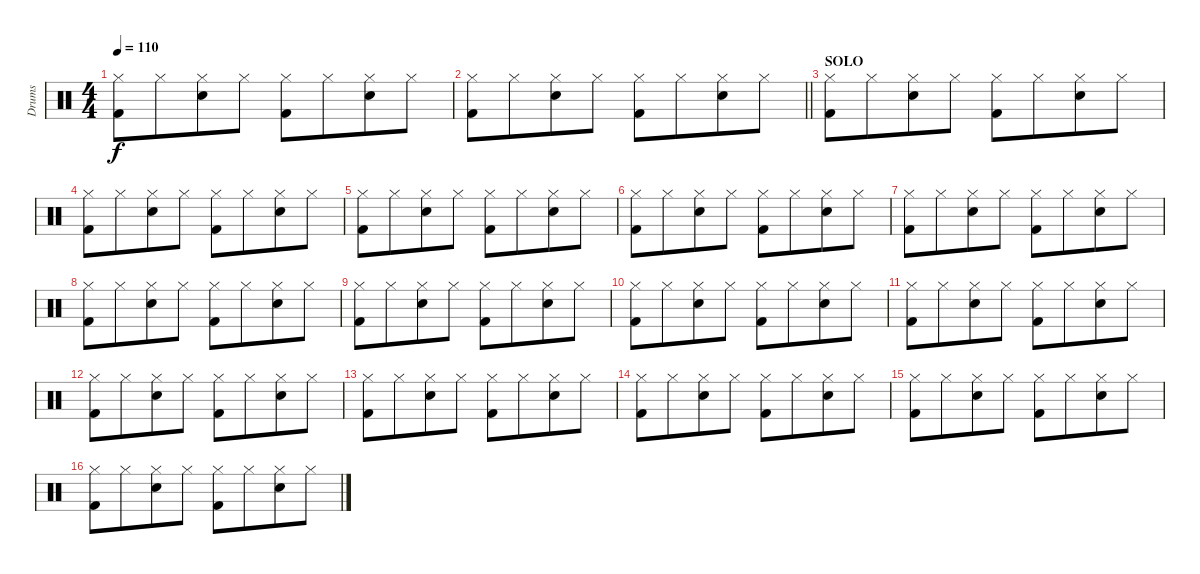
\track ("Drums" "Drums") {instrument percussion}
\staff {score}
\articulation defaults
\ts (4 4)
\tempo 110
\clef neutral
\ks c
("Hi-Hat (closed)" "Kick (hit) 2").8{dy f} "Hi-Hat (closed)".8{beam merge} ("Hi-Hat (closed)" "Electric Snare (hit)").8 "Hi-Hat (closed)".8 ("Hi-Hat (closed)" "Kick (hit) 2").8 "Hi-Hat (closed)".8{beam merge} ("Hi-Hat (closed)" "Electric Snare (hit)").8 "Hi-Hat (closed)".8 |
\barLineRight lightlight
("Hi-Hat (closed)" "Kick (hit) 2").8 "Hi-Hat (closed)".8{beam merge} ("Hi-Hat (closed)" "Electric Snare (hit)").8 "Hi-Hat (closed)".8 ("Hi-Hat (closed)" "Kick (hit) 2").8 "Hi-Hat (closed)".8{beam merge} ("Hi-Hat (closed)" "Electric Snare (hit)").8 "Hi-Hat (closed)".8 |
\section ("" "SOLO")
("Hi-Hat (closed)" "Kick (hit) 2").8 "Hi-Hat (closed)".8{beam merge} ("Hi-Hat (closed)" "Electric Snare (hit)").8 "Hi-Hat (closed)".8 ("Hi-Hat (closed)" "Kick (hit) 2").8 "Hi-Hat (closed)".8{beam merge} ("Hi-Hat (closed)" "Electric Snare (hit)").8 "Hi-Hat (closed)".8 |
("Hi-Hat (closed)" "Kick (hit) 2").8 "Hi-Hat (closed)".8{beam merge} ("Hi-Hat (closed)" "Electric Snare (hit)").8 "Hi-Hat (closed)".8 ("Hi-Hat (closed)" "Kick (hit) 2").8 "Hi-Hat (closed)".8{beam merge} ("Hi-Hat (closed)" "Electric Snare (hit)").8 "Hi-Hat (closed)".8 |
("Hi-Hat (closed)" "Kick (hit) 2").8 "Hi-Hat (closed)".8{beam merge} ("Hi-Hat (closed)" "Electric Snare (hit)").8 "Hi-Hat (closed)".8 ("Hi-Hat (closed)" "Kick (hit) 2").8 "Hi-Hat (closed)".8{beam merge} ("Hi-Hat (closed)" "Electric Snare (hit)").8 "Hi-Hat (closed)".8 |
("Hi-Hat (closed)" "Kick (hit) 2").8 "Hi-Hat (closed)".8{beam merge} ("Hi-Hat (closed)" "Electric Snare (hit)").8 "Hi-Hat (closed)".8 ("Hi-Hat (closed)" "Kick (hit) 2").8 "Hi-Hat (closed)".8{beam merge} ("Hi-Hat (closed)" "Electric Snare (hit)").8 "Hi-Hat (closed)".8 |
("Hi-Hat (closed)" "Kick (hit) 2").8 "Hi-Hat (closed)".8{beam merge} ("Hi-Hat (closed)" "Electric Snare (hit)").8 "Hi-Hat (closed)".8 ("Hi-Hat (closed)" "Kick (hit) 2").8 "Hi-Hat (closed)".8{beam merge} ("Hi-Hat (closed)" "Electric Snare (hit)").8 "Hi-Hat (closed)".8 |
("Hi-Hat (closed)" "Kick (hit) 2").8 "Hi-Hat (closed)".8{beam merge} ("Hi-Hat (closed)" "Electric Snare (hit)").8 "Hi-Hat (closed)".8 ("Hi-Hat (closed)" "Kick (hit) 2").8 "Hi-Hat (closed)".8{beam merge} ("Hi-Hat (closed)" "Electric Snare (hit)").8 "Hi-Hat (closed)".8 |
("Hi-Hat (closed)" "Kick (hit) 2").8 "Hi-Hat (closed)".8{beam merge} ("Hi-Hat (closed)" "Electric Snare (hit)").8 "Hi-Hat (closed)".8 ("Hi-Hat (closed)" "Kick (hit) 2").8 "Hi-Hat (closed)".8{beam merge} ("Hi-Hat (closed)" "Electric Snare (hit)").8 "Hi-Hat (closed)".8 |
("Hi-Hat (closed)" "Kick (hit) 2").8 "Hi-Hat (closed)".8{beam merge} ("Hi-Hat (closed)" "Electric Snare (hit)").8 "Hi-Hat (closed)".8 ("Hi-Hat (closed)" "Kick (hit) 2").8 "Hi-Hat (closed)".8{beam merge} ("Hi-Hat (closed)" "Electric Snare (hit)").8 "Hi-Hat (closed)".8 |
("Hi-Hat (closed)" "Kick (hit) 2").8 "Hi-Hat (closed)".8{beam merge} ("Hi-Hat (closed)" "Electric Snare (hit)").8 "Hi-Hat (closed)".8 ("Hi-Hat (closed)" "Kick (hit) 2").8 "Hi-Hat (closed)".8{beam merge} ("Hi-Hat (closed)" "Electric Snare (hit)").8 "Hi-Hat (closed)".8 |
("Hi-Hat (closed)" "Kick (hit) 2").8 "Hi-Hat (closed)".8{beam merge} ("Hi-Hat (closed)" "Electric Snare (hit)").8 "Hi-Hat (closed)".8 ("Hi-Hat (closed)" "Kick (hit) 2").8 "Hi-Hat (closed)".8{beam merge} ("Hi-Hat (closed)" "Electric Snare (hit)").8 "Hi-Hat (closed)".8 |
("Hi-Hat (closed)" "Kick (hit) 2").8 "Hi-Hat (closed)".8{beam merge} ("Hi-Hat (closed)" "Electric Snare (hit)").8 "Hi-Hat (closed)".8 ("Hi-Hat (closed)" "Kick (hit) 2").8 "Hi-Hat (closed)".8{beam merge} ("Hi-Hat (closed)" "Electric Snare (hit)").8 "Hi-Hat (closed)".8 |
("Hi-Hat (closed)" "Kick (hit) 2").8 "Hi-Hat (closed)".8{beam merge} ("Hi-Hat (closed)" "Electric Snare (hit)").8 "Hi-Hat (closed)".8 ("Hi-Hat (closed)" "Kick (hit) 2").8 "Hi-Hat (closed)".8{beam merge} ("Hi-Hat (closed)" "Electric Snare (hit)").8 "Hi-Hat (closed)".8 |
("Hi-Hat (closed)" "Kick (hit) 2").8 "Hi-Hat (closed)".8{beam merge} ("Hi-Hat (closed)" "Electric Snare (hit)").8 "Hi-Hat (closed)".8 ("Hi-Hat (closed)" "Kick (hit) 2").8 "Hi-Hat (closed)".8{beam merge} ("Hi-Hat (closed)" "Electric Snare (hit)").8 "Hi-Hat (closed)".8 |
("Hi-Hat (closed)" "Kick (hit) 2").8 "Hi-Hat (closed)".8{beam merge} ("Hi-Hat (closed)" "Electric Snare (hit)").8 "Hi-Hat (closed)".8 ("Hi-Hat (closed)" "Kick (hit) 2").8 "Hi-Hat (closed)".8{beam merge} ("Hi-Hat (closed)" "Electric Snare (hit)").8 "Hi-Hat (closed)".8
